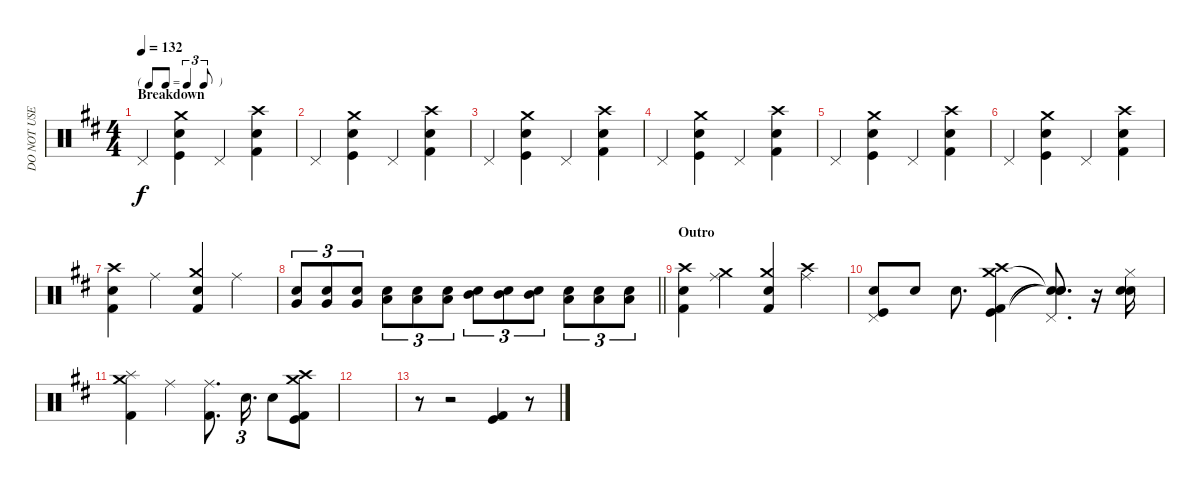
\track ("DO NOT USE" "DO NOT USE") {solo instrument percussion}
\staff {score}
\articulation defaults
\ts (4 4)
\tf triplet8th
\section ("" "Breakdown")
\tempo 132
\clef neutral
\ks d "Pedal Hi-Hat (hit)".4{dy f}
("Snare (hit) 2" "Kick (hit)" "Crash medium (hit)").4 "Pedal Hi-Hat (hit)".4 ("Electric Snare (hit)" "Kick (hit) 2" "Crash high (hit)").4 |
"Pedal Hi-Hat (hit)".4 ("Snare (hit) 2" "Kick (hit)" "Crash medium (hit)").4 "Pedal Hi-Hat (hit)".4 ("Electric Snare (hit)" "Kick (hit) 2" "Crash high (hit)").4 |
"Pedal Hi-Hat (hit)".4 ("Snare (hit) 2" "Kick (hit)" "Crash medium (hit)").4 "Pedal Hi-Hat (hit)".4 ("Electric Snare (hit)" "Kick (hit) 2" "Crash high (hit)").4 |
"Pedal Hi-Hat (hit)".4 ("Snare (hit) 2" "Kick (hit)" "Crash medium (hit)").4 "Pedal Hi-Hat (hit)".4 ("Electric Snare (hit)" "Kick (hit) 2" "Crash high (hit)").4 |
"Pedal Hi-Hat (hit)".4 ("Snare (hit) 2" "Kick (hit)" "Crash medium (hit)").4 "Pedal Hi-Hat (hit)".4 ("Electric Snare (hit)" "Kick (hit) 2" "Crash high (hit)").4 |
"Pedal Hi-Hat (hit)".4 ("Snare (hit) 2" "Kick (hit)" "Crash medium (hit)").4 "Pedal Hi-Hat (hit)".4 ("Electric Snare (hit)" "Kick (hit) 2" "Crash high (hit)").4 |
("Electric Snare (hit)" "Kick (hit) 2" "Crash high (hit)").4 "Ride (middle)".4 ("Snare (hit) 2" "Kick (hit) 2" "Crash medium (hit)").4 "Ride (middle)".4 |
\barLineRight lightlight
("Electric Snare (hit)" "Very Low Tom (hit)").8{tu (3 2)} ("Electric Snare (hit)" "Very Low Tom (hit)").8{tu (3 2)} ("Electric Snare (hit)" "Very Low Tom (hit)").8{tu (3 2)} ("Snare (hit) 2" "Low Tom (hit)").8{tu (3 2)} ("Snare (hit) 2" "Low Tom (hit)").8{tu (3 2)} ("Snare (hit) 2" "Low Tom (hit)").8{tu (3 2)} ("Electric Snare (hit)" "Mid Tom (hit)").8{tu (3 2)} ("Electric Snare (hit)" "Mid Tom (hit)").8{tu (3 2)} ("Electric Snare (hit)" "Mid Tom (hit)").8{tu (3 2)} ("Electric Snare (hit)" "Low Floor Tom (hit)").8{tu (3 2)} ("Electric Snare (hit)" "Low Floor Tom (hit)").8{tu (3 2)} ("Electric Snare (hit)" "Low Floor Tom (hit)").8{tu (3 2)} |
\section ("" "Outro")
("Electric Snare (hit)" "Kick (hit) 2" "Crash high (hit)").4 ("Ride (middle)" "Crash medium (hit)").4 ("Snare (hit) 2" "Kick (hit) 2" "Crash medium (hit)").4 ("Ride (middle)" "Crash high (hit)").4 |
("Kick (hit)" "Snare (hit) 2" "Pedal Hi-Hat (hit)").8 "Electric Snare (hit)".8 "Snare (hit) 2".8{d} ("Kick (hit) 2" "Kick (hit)" "Crash high (hit)" "Crash medium (hit)").4 ("Snare (hit)"{t} "Snare (hit)"{t} "Pedal Hi-Hat (hit)" "Snare (hit)"{t}).8{d} r.16 ("Hi-Hat (closed)" "Snare (hit) 2" "Electric Snare (hit)").16 |
("Splash (hit)" "Kick (hit) 2" "Crash medium (hit)").4 "Ride (middle)".4 ("Ride (middle)" "Kick (hit) 2").8{d} "Electric Snare (hit)".16{d tu (3 2)} "Snare (hit) 2".8 ("Kick (hit) 2" "Kick (hit)" "Crash high (hit)" "Crash medium (hit)").8 |
|
r.8 r.2 ("Kick (hit)" "Kick (hit) 2").4 r.8
